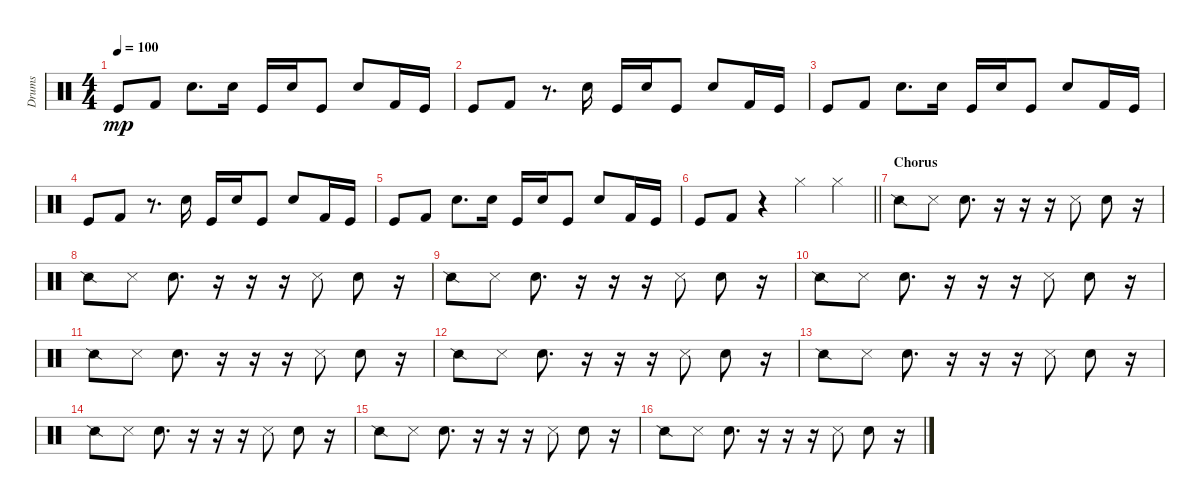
\track ("Drums" "Drums") {instrument percussion}
\staff {score}
\articulation defaults
\ts (4 4)
\tempo 100
\clef neutral
\ks c "Kick (hit)".8{dy mp} "Kick (hit) 2".8 "Electric Snare (hit)".8{d} "Electric Snare (hit)".16 "Kick (hit)".16 "Electric Snare (hit)".16 "Kick (hit)".8 "Electric Snare (hit)".8 "Kick (hit) 2".16 "Kick (hit)".16
|
"Kick (hit)".8 "Kick (hit) 2".8 r.8{d} "Electric Snare (hit)".16 "Kick (hit)".16 "Electric Snare (hit)".16 "Kick (hit)".8 "Electric Snare (hit)".8 "Kick (hit) 2".16 "Kick (hit)".16 |
"Kick (hit)".8 "Kick (hit) 2".8 "Electric Snare (hit)".8{d} "Electric Snare (hit)".16 "Kick (hit)".16 "Electric Snare (hit)".16 "Kick (hit)".8 "Electric Snare (hit)".8 "Kick (hit) 2".16 "Kick (hit)".16 |
"Kick (hit)".8 "Kick (hit) 2".8 r.8{d} "Electric Snare (hit)".16 "Kick (hit)".16 "Electric Snare (hit)".16 "Kick (hit)".8 "Electric Snare (hit)".8 "Kick (hit) 2".16 "Kick (hit)".16 |
"Kick (hit)".8 "Kick (hit) 2".8 "Electric Snare (hit)".8{d} "Electric Snare (hit)".16 "Kick (hit)".16 "Electric Snare (hit)".16 "Kick (hit)".8 "Electric Snare (hit)".8 "Kick (hit) 2".16 "Kick (hit)".16 |
\barLineRight lightlight "Kick (hit)".8 "Kick (hit) 2".8
r.4 "Hi-Hat (closed)".4 "Hi-Hat (closed)".4 |
\section ("" "Chorus")
"Snare (side stick) 2".8 "Snare (side stick) 3".8 "Hand Clap (hit)".8{d} r.16 r.16 r.16 "Snare (side stick) 3".8 "Hand Clap (hit)".8 r.16 |
"Snare (side stick) 2".8 "Snare (side stick) 3".8 "Hand Clap (hit)".8{d} r.16 r.16 r.16 "Snare (side stick) 3".8 "Hand Clap (hit)".8 r.16 |
"Snare (side stick) 2".8 "Snare (side stick) 3".8 "Hand Clap (hit)".8{d} r.16 r.16 r.16 "Snare (side stick) 3".8 "Hand Clap (hit)".8 r.16 |
"Snare (side stick) 2".8 "Snare (side stick) 3".8 "Hand Clap (hit)".8{d} r.16 r.16 r.16 "Snare (side stick) 3".8 "Hand Clap (hit)".8 r.16 |
"Snare (side stick) 2".8 "Snare (side stick) 3".8 "Hand Clap (hit)".8{d} r.16 r.16 r.16 "Snare (side stick) 3".8 "Hand Clap (hit)".8 r.16 |
"Snare (side stick) 2".8 "Snare (side stick) 3".8 "Hand Clap (hit)".8{d} r.16 r.16 r.16 "Snare (side stick) 3".8 "Hand Clap (hit)".8 r.16 |
"Snare (side stick) 2".8 "Snare (side stick) 3".8 "Hand Clap (hit)".8{d} r.16 r.16 r.16 "Snare (side stick) 3".8 "Hand Clap (hit)".8 r.16 |
"Snare (side stick) 2".8 "Snare (side stick) 3".8 "Hand Clap (hit)".8{d} r.16 r.16 r.16 "Snare (side stick) 3".8 "Hand Clap (hit)".8 r.16 |
"Snare (side stick) 2".8 "Snare (side stick) 3".8 "Hand Clap (hit)".8{d} r.16 r.16 r.16 "Snare (side stick) 3".8 "Hand Clap (hit)".8 r.16 |
"Snare (side stick) 2".8 "Snare (side stick) 3".8 "Hand Clap (hit)".8{d} r.16 r.16 r.16 "Snare (side stick) 3".8 "Hand Clap (hit)".8 r.16
